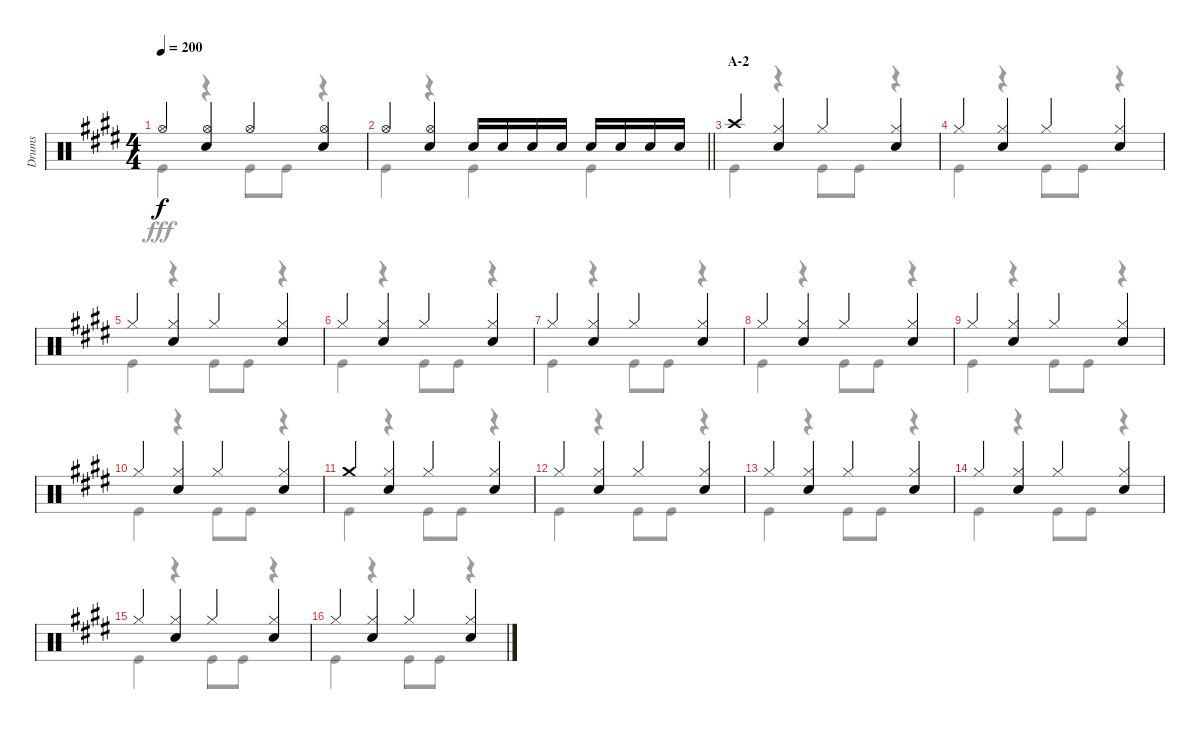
\track ("Drums" "Drums") {instrument percussion}
\staff {score}
\articulation defaults
\voice
\ts (4 4)
\tempo 200
\clef neutral
\ks e "Hi-Hat (open)".4{dy f}
("Hi-Hat (open)" "Snare (hit) 2").4 "Hi-Hat (open)".4 ("Hi-Hat (open)" "Snare (hit) 2").4 |
\barLineRight lightlight "Hi-Hat (open)".4
("Hi-Hat (open)" "Snare (hit) 2").4 "Snare (hit) 2".16 "Snare (hit) 2".16 "Snare (hit) 2".16 "Snare (hit) 2".16 "Snare (hit) 2".16 "Snare (hit) 2".16 "Snare (hit) 2".16 "Snare (hit) 2".16 |
\section ("" "A-2")
"Crash high (hit)".4 ("Hi-Hat (closed)" "Snare (hit) 2").4 "Hi-Hat (closed)".4 ("Hi-Hat (closed)" "Snare (hit) 2").4 |
"Hi-Hat (closed)".4 ("Hi-Hat (closed)" "Snare (hit) 2").4 "Hi-Hat (closed)".4 ("Hi-Hat (closed)" "Snare (hit) 2").4 |
"Hi-Hat (closed)".4 ("Hi-Hat (closed)" "Snare (hit) 2").4 "Hi-Hat (closed)".4 ("Hi-Hat (closed)" "Snare (hit) 2").4 |
"Hi-Hat (closed)".4 ("Hi-Hat (closed)" "Snare (hit) 2").4 "Hi-Hat (closed)".4 ("Hi-Hat (closed)" "Snare (hit) 2").4 |
"Hi-Hat (closed)".4 ("Hi-Hat (closed)" "Snare (hit) 2").4 "Hi-Hat (closed)".4 ("Hi-Hat (closed)" "Snare (hit) 2").4 |
"Hi-Hat (closed)".4 ("Hi-Hat (closed)" "Snare (hit) 2").4 "Hi-Hat (closed)".4 ("Hi-Hat (closed)" "Snare (hit) 2").4 |
"Hi-Hat (closed)".4 ("Hi-Hat (closed)" "Snare (hit) 2").4 "Hi-Hat (closed)".4 ("Hi-Hat (closed)" "Snare (hit) 2").4 |
"Hi-Hat (closed)".4 ("Hi-Hat (closed)" "Snare (hit) 2").4 "Hi-Hat (closed)".4 ("Hi-Hat (closed)" "Snare (hit) 2").4 |
"Crash medium (hit)".4 ("Hi-Hat (closed)" "Snare (hit) 2").4 "Hi-Hat (closed)".4 ("Hi-Hat (closed)" "Snare (hit) 2").4 |
"Hi-Hat (closed)".4 ("Hi-Hat (closed)" "Snare (hit) 2").4 "Hi-Hat (closed)".4 ("Hi-Hat (closed)" "Snare (hit) 2").4 |
"Hi-Hat (closed)".4 ("Hi-Hat (closed)" "Snare (hit) 2").4 "Hi-Hat (closed)".4 ("Hi-Hat (closed)" "Snare (hit) 2").4 |
"Hi-Hat (closed)".4 ("Hi-Hat (closed)" "Snare (hit) 2").4 "Hi-Hat (closed)".4 ("Hi-Hat (closed)" "Snare (hit) 2").4 |
"Hi-Hat (closed)".4 ("Hi-Hat (closed)" "Snare (hit) 2").4 "Hi-Hat (closed)".4 ("Hi-Hat (closed)" "Snare (hit) 2").4 |
"Hi-Hat (closed)".4 ("Hi-Hat (closed)" "Snare (hit) 2").4 "Hi-Hat (closed)".4 ("Hi-Hat (closed)" "Snare (hit) 2").4
\voice
\clef neutral
\ottava regular
\simile none
\ks e "Kick (hit)".4{dy fff}
r.4 "Kick (hit)".8 "Kick (hit)".8 r.4 |
\barLineRight lightlight "Kick (hit)".4
r.4 "Kick (hit)".4 "Kick (hit)".4 |
"Kick (hit)".4 r.4 "Kick (hit)".8 "Kick (hit)".8 r.4 |
"Kick (hit)".4 r.4 "Kick (hit)".8 "Kick (hit)".8 r.4 |
"Kick (hit)".4 r.4 "Kick (hit)".8 "Kick (hit)".8 r.4 |
"Kick (hit)".4 r.4 "Kick (hit)".8 "Kick (hit)".8 r.4 |
"Kick (hit)".4 r.4 "Kick (hit)".8 "Kick (hit)".8 r.4 |
"Kick (hit)".4 r.4 "Kick (hit)".8 "Kick (hit)".8 r.4 |
"Kick (hit)".4 r.4 "Kick (hit)".8 "Kick (hit)".8 r.4 |
"Kick (hit)".4 r.4 "Kick (hit)".8 "Kick (hit)".8 r.4 |
"Kick (hit)".4 r.4 "Kick (hit)".8 "Kick (hit)".8 r.4 |
"Kick (hit)".4 r.4 "Kick (hit)".8 "Kick (hit)".8 r.4 |
"Kick (hit)".4 r.4 "Kick (hit)".8 "Kick (hit)".8 r.4 |
"Kick (hit)".4 r.4 "Kick (hit)".8 "Kick (hit)".8 r.4 |
"Kick (hit)".4 r.4 "Kick (hit)".8 "Kick (hit)".8 r.4 |
"Kick (hit)".4 r.4 "Kick (hit)".8 "Kick (hit)".8 r.4
